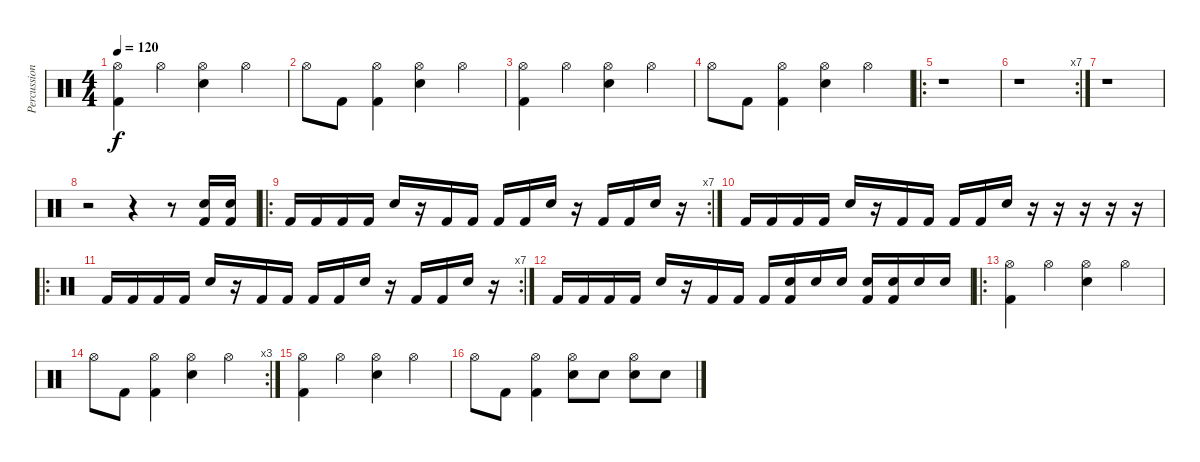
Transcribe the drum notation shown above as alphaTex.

\track ("Percussion" "Percussion") {instrument percussion}
\staff {score}
\articulation defaults
\ts (4 4)
\tempo 120
\clef neutral
\ks c
("Kick (hit) 2" "Hi-Hat (open)").4{dy f} "Hi-Hat (open)".4 ("Electric Snare (hit)" "Hi-Hat (open)").4 "Hi-Hat (open)".4 |
"Hi-Hat (open)".8 "Kick (hit) 2".8 ("Kick (hit) 2" "Hi-Hat (open)").4 ("Electric Snare (hit)" "Hi-Hat (open)").4 "Hi-Hat (open)".4 |
("Kick (hit) 2" "Hi-Hat (open)").4 "Hi-Hat (open)".4 ("Electric Snare (hit)" "Hi-Hat (open)").4 "Hi-Hat (open)".4 |
"Hi-Hat (open)".8 "Kick (hit) 2".8 ("Kick (hit) 2" "Hi-Hat (open)").4 ("Electric Snare (hit)" "Hi-Hat (open)").4 "Hi-Hat (open)".4 |
\ro
r.1 |
\rc 7
r.1 |
r.1 |
r.2 r.4 r.8 ("Kick (hit) 2" "Electric Snare (hit)").16 ("Kick (hit) 2" "Electric Snare (hit)").16 |
\ro
\rc 7 "Kick (hit) 2".16 "Kick (hit) 2".16 "Kick (hit) 2".16 "Kick (hit) 2".16 "Electric Snare (hit)".16
r.16 "Kick (hit) 2".16 "Kick (hit) 2".16 "Kick (hit) 2".16 "Kick (hit) 2".16 "Electric Snare (hit)".16 r.16 "Kick (hit) 2".16 "Kick (hit) 2".16 "Electric Snare (hit)".16 r.16 |
"Kick (hit) 2".16 "Kick (hit) 2".16 "Kick (hit) 2".16 "Kick (hit) 2".16 "Electric Snare (hit)".16 r.16 "Kick (hit) 2".16 "Kick (hit) 2".16 "Kick (hit) 2".16 "Kick (hit) 2".16 "Electric Snare (hit)".16 r.16 r.16 r.16 r.16 r.16 |
\ro
\rc 7 "Kick (hit) 2".16 "Kick (hit) 2".16 "Kick (hit) 2".16 "Kick (hit) 2".16 "Electric Snare (hit)".16
r.16 "Kick (hit) 2".16 "Kick (hit) 2".16 "Kick (hit) 2".16 "Kick (hit) 2".16 "Electric Snare (hit)".16 r.16 "Kick (hit) 2".16 "Kick (hit) 2".16 "Electric Snare (hit)".16 r.16 |
"Kick (hit) 2".16 "Kick (hit) 2".16 "Kick (hit) 2".16 "Kick (hit) 2".16 "Electric Snare (hit)".16 r.16 "Kick (hit) 2".16 "Kick (hit) 2".16 "Kick (hit) 2".16 ("Kick (hit) 2" "Electric Snare (hit)").16 "Electric Snare (hit)".16 "Electric Snare (hit)".16 ("Kick (hit) 2" "Electric Snare (hit)").16 ("Kick (hit) 2" "Electric Snare (hit)").16 "Electric Snare (hit)".16 "Electric Snare (hit)".16 |
\ro
("Kick (hit) 2" "Hi-Hat (open)").4 "Hi-Hat (open)".4 ("Electric Snare (hit)" "Hi-Hat (open)").4 "Hi-Hat (open)".4 |
\rc 3 "Hi-Hat (open)".8 "Kick (hit) 2".8
("Kick (hit) 2" "Hi-Hat (open)").4 ("Electric Snare (hit)" "Hi-Hat (open)").4 "Hi-Hat (open)".4 |
("Kick (hit) 2" "Hi-Hat (open)").4 "Hi-Hat (open)".4 ("Electric Snare (hit)" "Hi-Hat (open)").4 "Hi-Hat (open)".4 |
"Hi-Hat (open)".8 "Kick (hit) 2".8 ("Kick (hit) 2" "Hi-Hat (open)").4 ("Electric Snare (hit)" "Hi-Hat (open)").8 "Electric Snare (hit)".8 ("Electric Snare (hit)" "Hi-Hat (open)").8 "Electric Snare (hit)".8
